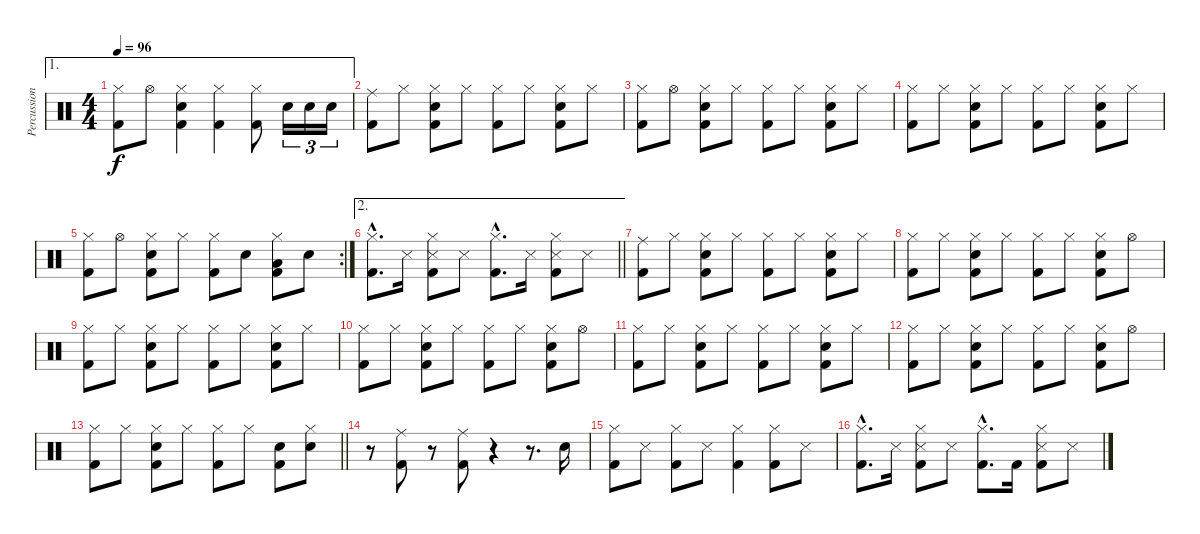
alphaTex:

\track ("Percussions" "Percussion") {instrument percussion}
\staff {score}
\articulation defaults
\ae 1
\ts (4 4)
\tempo 96
\clef neutral
\ks c
("Hi-Hat (closed)" "Kick (hit) 2").8{dy f} "Hi-Hat (open)".8 ("Hi-Hat (closed)" "Snare (hit) 2" "Kick (hit) 2").4 ("Hi-Hat (closed)" "Kick (hit) 2").4 ("Hi-Hat (closed)" "Kick (hit) 2").8 "Snare (hit) 2".16{tu (3 2)} "Snare (hit) 2".16{tu (3 2)} "Snare (hit) 2".16{tu (3 2)} |
("Ride (middle)" "Kick (hit) 2").8 "Hi-Hat (closed)".8 ("Hi-Hat (closed)" "Snare (hit) 2" "Kick (hit) 2").8 "Hi-Hat (closed)".8 ("Hi-Hat (closed)" "Kick (hit) 2").8 "Hi-Hat (closed)".8 ("Hi-Hat (closed)" "Snare (hit) 2" "Kick (hit) 2").8 "Hi-Hat (closed)".8 |
("Hi-Hat (closed)" "Kick (hit) 2").8 "Hi-Hat (open)".8 ("Hi-Hat (closed)" "Snare (hit) 2" "Kick (hit) 2").8 "Hi-Hat (closed)".8 ("Hi-Hat (closed)" "Kick (hit) 2").8 "Hi-Hat (closed)".8 ("Hi-Hat (closed)" "Snare (hit) 2" "Kick (hit) 2").8 "Hi-Hat (closed)".8 |
("Hi-Hat (closed)" "Kick (hit) 2").8 "Hi-Hat (closed)".8 ("Hi-Hat (closed)" "Snare (hit) 2" "Kick (hit) 2").8 "Hi-Hat (closed)".8 ("Hi-Hat (closed)" "Kick (hit) 2").8 "Hi-Hat (closed)".8 ("Hi-Hat (closed)" "Snare (hit) 2" "Kick (hit) 2").8 "Hi-Hat (closed)".8 |
\rc 2
("Hi-Hat (closed)" "Kick (hit) 2").8 "Hi-Hat (open)".8 ("Hi-Hat (closed)" "Snare (hit) 2" "Kick (hit) 2").8 "Hi-Hat (closed)".8 ("Hi-Hat (closed)" "Kick (hit) 2").8 "Snare (hit) 2".8 ("Hi-Hat (closed)" "Low Floor Tom (hit)" "Kick (hit) 2").8 "Snare (hit) 2".8 |
\ae 2
\barLineRight lightlight
("Hi-Hat (closed)"{hac} "Kick (hit) 2"{hac}).8{d} "Snare (side stick) 3".16 ("Hi-Hat (closed)" "Snare (side stick) 3" "Kick (hit) 2").8 "Snare (side stick) 3".8 ("Hi-Hat (closed)"{hac} "Kick (hit) 2"{hac}).8{d} "Snare (side stick) 3".16 ("Hi-Hat (closed)" "Snare (side stick) 3" "Kick (hit) 2").8 "Snare (side stick) 3".8 |
("Ride (middle)" "Kick (hit) 2").8 "Hi-Hat (closed)".8 ("Hi-Hat (closed)" "Snare (hit) 2" "Kick (hit) 2").8 "Hi-Hat (closed)".8 ("Hi-Hat (closed)" "Kick (hit) 2").8 "Hi-Hat (closed)".8 ("Hi-Hat (closed)" "Snare (hit) 2" "Kick (hit) 2").8 "Hi-Hat (closed)".8 |
("Hi-Hat (closed)" "Kick (hit) 2").8 "Hi-Hat (closed)".8 ("Hi-Hat (closed)" "Snare (hit) 2" "Kick (hit) 2").8 "Hi-Hat (closed)".8 ("Hi-Hat (closed)" "Kick (hit) 2").8 "Hi-Hat (closed)".8 ("Hi-Hat (closed)" "Snare (hit) 2" "Kick (hit) 2").8 "Hi-Hat (open)".8 |
("Hi-Hat (closed)" "Kick (hit) 2").8 "Hi-Hat (closed)".8 ("Hi-Hat (closed)" "Snare (hit) 2" "Kick (hit) 2").8 "Hi-Hat (closed)".8 ("Hi-Hat (closed)" "Kick (hit) 2").8 "Hi-Hat (closed)".8 ("Hi-Hat (closed)" "Snare (hit) 2" "Kick (hit) 2").8 "Hi-Hat (closed)".8 |
("Hi-Hat (closed)" "Kick (hit) 2").8 "Hi-Hat (closed)".8 ("Hi-Hat (closed)" "Snare (hit) 2" "Kick (hit) 2").8 "Hi-Hat (closed)".8 ("Hi-Hat (closed)" "Kick (hit) 2").8 "Hi-Hat (closed)".8 ("Hi-Hat (closed)" "Snare (hit) 2" "Kick (hit) 2").8 "Hi-Hat (open)".8 |
("Hi-Hat (closed)" "Kick (hit) 2").8 "Hi-Hat (closed)".8 ("Hi-Hat (closed)" "Snare (hit) 2" "Kick (hit) 2").8 "Hi-Hat (closed)".8 ("Hi-Hat (closed)" "Kick (hit) 2").8 "Hi-Hat (closed)".8 ("Hi-Hat (closed)" "Snare (hit) 2" "Kick (hit) 2").8 "Hi-Hat (closed)".8 |
("Hi-Hat (closed)" "Kick (hit) 2").8 "Hi-Hat (closed)".8 ("Hi-Hat (closed)" "Snare (hit) 2" "Kick (hit) 2").8 "Hi-Hat (closed)".8 ("Hi-Hat (closed)" "Kick (hit) 2").8 "Hi-Hat (closed)".8 ("Hi-Hat (closed)" "Snare (hit) 2" "Kick (hit) 2").8 "Hi-Hat (open)".8 |
\barLineRight lightlight
("Hi-Hat (closed)" "Kick (hit) 2").8 "Hi-Hat (closed)".8 ("Hi-Hat (closed)" "Snare (hit) 2" "Kick (hit) 2").8 "Hi-Hat (closed)".8 ("Hi-Hat (closed)" "Kick (hit) 2").8 "Hi-Hat (closed)".8 ("Snare (hit) 2" "Kick (hit) 2").8 ("Hi-Hat (closed)" "Snare (hit) 2").8 |
r.8 ("Ride (middle)" "Kick (hit) 2").8 r.8 ("Ride (middle)" "Kick (hit) 2").8 r.4 r.8{d} "Snare (hit) 2".16 |
("Hi-Hat (closed)" "Kick (hit) 2").8 "Snare (side stick) 3".8 ("Hi-Hat (closed)" "Kick (hit) 2").8 "Snare (side stick) 3".8 ("Hi-Hat (closed)" "Kick (hit) 2").4 ("Hi-Hat (closed)" "Kick (hit) 2").8 "Snare (side stick) 3".8 |
("Hi-Hat (closed)"{hac} "Kick (hit) 2"{hac}).8{d} "Snare (side stick) 3".16 ("Hi-Hat (closed)" "Snare (side stick) 3" "Kick (hit) 2").8 "Snare (side stick) 3".8 ("Hi-Hat (closed)"{hac} "Kick (hit) 2"{hac}).8{d} "Kick (hit) 2".16 ("Hi-Hat (closed)" "Snare (side stick) 3" "Kick (hit) 2").8 "Snare (side stick) 3".8
